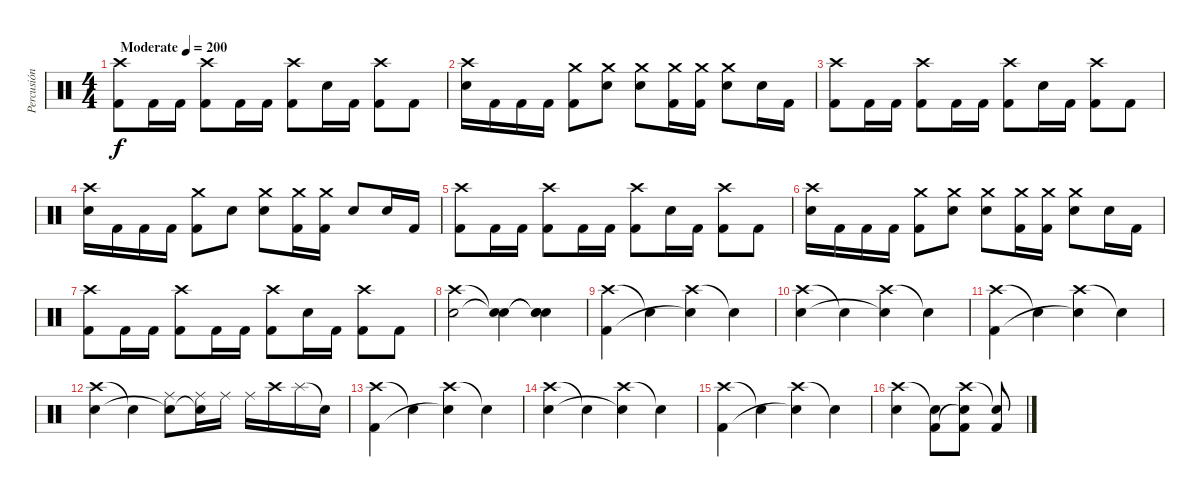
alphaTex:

\track ("Percusión" "Percusión") {instrument percussion}
\staff {score}
\articulation defaults
\ts (4 4)
\tempo (200 "Moderate")
\clef neutral
\ks c
("Crash high (hit)" "Kick (hit) 2").8{dy f} "Kick (hit) 2".16 "Kick (hit) 2".16 ("Crash high (hit)" "Kick (hit) 2").8 "Kick (hit) 2".16 "Kick (hit) 2".16 ("Crash high (hit)" "Kick (hit) 2").8 "Electric Snare (hit)".16 "Kick (hit) 2".16 ("Crash high (hit)" "Kick (hit) 2").8 "Kick (hit) 2".8 |
("Crash high (hit)" "Electric Snare (hit)").16 "Kick (hit) 2".16 "Kick (hit) 2".16 "Kick (hit) 2".16 ("Crash medium (hit)" "Kick (hit) 2").8 ("Crash medium (hit)" "Electric Snare (hit)").8 ("Crash medium (hit)" "Electric Snare (hit)").8 ("Crash medium (hit)" "Kick (hit) 2").16 ("Crash medium (hit)" "Kick (hit) 2").16 ("Crash medium (hit)" "Electric Snare (hit)").8 "Electric Snare (hit)".16 "Kick (hit) 2".16 |
("Crash high (hit)" "Kick (hit) 2").8 "Kick (hit) 2".16 "Kick (hit) 2".16 ("Crash high (hit)" "Kick (hit) 2").8 "Kick (hit) 2".16 "Kick (hit) 2".16 ("Crash high (hit)" "Kick (hit) 2").8 "Electric Snare (hit)".16 "Kick (hit) 2".16 ("Crash high (hit)" "Kick (hit) 2").8 "Kick (hit) 2".8 |
("Crash high (hit)" "Electric Snare (hit)").16 "Kick (hit) 2".16 "Kick (hit) 2".16 "Kick (hit) 2".16 ("Crash medium (hit)" "Kick (hit) 2").8 "Electric Snare (hit)".8 ("Crash medium (hit)" "Electric Snare (hit)").8 ("Crash medium (hit)" "Kick (hit) 2").16 ("Crash medium (hit)" "Kick (hit) 2").16 "Electric Snare (hit)".8 "Electric Snare (hit)".16 "Kick (hit) 2".16 |
("Crash high (hit)" "Kick (hit) 2").8 "Kick (hit) 2".16 "Kick (hit) 2".16 ("Crash high (hit)" "Kick (hit) 2").8 "Kick (hit) 2".16 "Kick (hit) 2".16 ("Crash high (hit)" "Kick (hit) 2").8 "Electric Snare (hit)".16 "Kick (hit) 2".16 ("Crash high (hit)" "Kick (hit) 2").8 "Kick (hit) 2".8 |
("Crash high (hit)" "Electric Snare (hit)").16 "Kick (hit) 2".16 "Kick (hit) 2".16 "Kick (hit) 2".16 ("Crash medium (hit)" "Kick (hit) 2").8 ("Crash medium (hit)" "Electric Snare (hit)").8 ("Crash medium (hit)" "Electric Snare (hit)").8 ("Crash medium (hit)" "Kick (hit) 2").16 ("Crash medium (hit)" "Kick (hit) 2").16 ("Crash medium (hit)" "Electric Snare (hit)").8 "Electric Snare (hit)".16 "Kick (hit) 2".16 |
("Crash high (hit)" "Kick (hit) 2").8 "Kick (hit) 2".16 "Kick (hit) 2".16 ("Crash high (hit)" "Kick (hit) 2").8 "Kick (hit) 2".16 "Kick (hit) 2".16 ("Crash high (hit)" "Kick (hit) 2").8 "Electric Snare (hit)".16 "Kick (hit) 2".16 ("Crash high (hit)" "Kick (hit) 2").8 "Kick (hit) 2".8 |
("Crash high (hit)" "Electric Snare (hit)").2 ("Snare (hit)"{t} "Snare (hit)"{t}).4 ("Snare (hit)"{t} "Snare (hit)"{t} "Snare (hit)").4 |
("Crash high (hit)" "Kick (hit) 2").4 "Snare (hit)"{t}.4 ("Crash high (hit)" "Snare (hit)"{t}).4 "Snare (hit)"{t}.4 |
("Crash high (hit)" "Electric Snare (hit)").4 "Snare (hit)"{t}.4 ("Crash high (hit)" "Snare (hit)"{t}).4 "Snare (hit)"{t}.4 |
("Crash high (hit)" "Kick (hit) 2").4 "Snare (hit)"{t}.4 ("Crash high (hit)" "Snare (hit)"{t}).4 "Snare (hit)"{t}.4 |
("Crash high (hit)" "Electric Snare (hit)").4 "Snare (hit)"{t}.4 ("Ride (middle)" "Snare (hit)"{t}).8 ("Ride (middle)" "Snare (hit)"{t}).16 "Ride (middle)".16 "Ride (middle)".16 "Crash high (hit)".16 "Splash (hit)".16 "Snare (hit)"{t}.16 |
("Crash high (hit)" "Kick (hit) 2").4 "Snare (hit)"{t}.4 ("Crash high (hit)" "Snare (hit)"{t}).4 "Snare (hit)"{t}.4 |
("Crash high (hit)" "Electric Snare (hit)").4 "Snare (hit)"{t}.4 ("Crash high (hit)" "Snare (hit)"{t}).4 "Snare (hit)"{t}.4 |
("Crash high (hit)" "Kick (hit) 2").4 "Snare (hit)"{t}.4 ("Crash high (hit)" "Snare (hit)"{t}).4 "Snare (hit)"{t}.4 |
("Crash high (hit)" "Electric Snare (hit)").4 ("Snare (hit)"{t} "Kick (hit) 2").8 ("Crash high (hit)" "Snare (hit)"{t} "Kick (hit) 2").8 ("Snare (hit)"{t} "Kick (hit) 2").8
